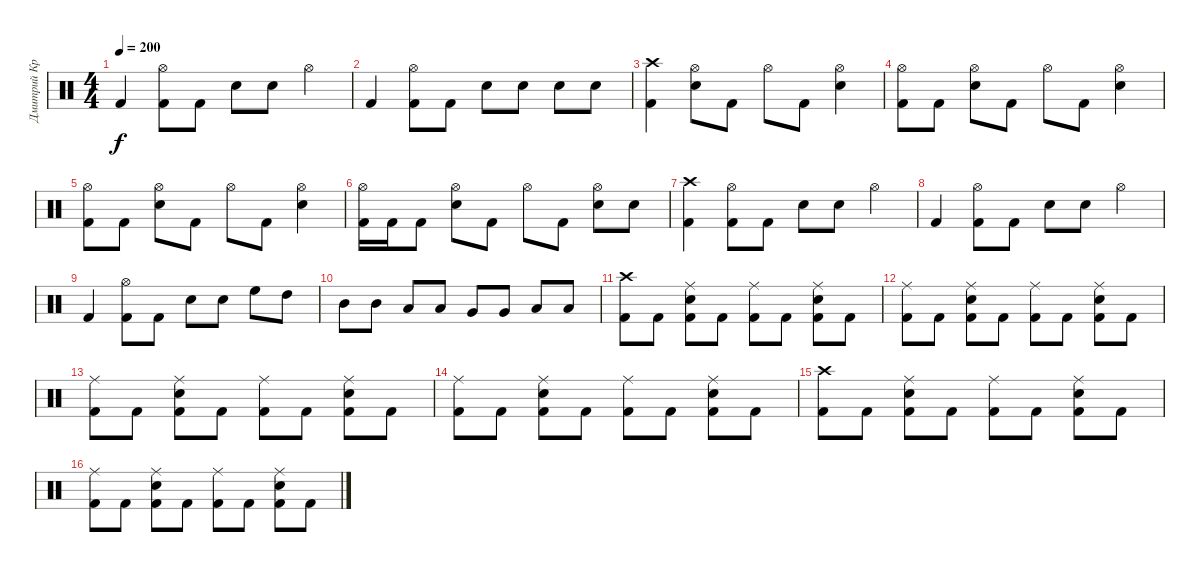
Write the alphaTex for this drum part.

\track ("Дмитрий Кривенков" "Дмитрий Кр") {instrument percussion}
\staff {score}
\articulation defaults
\ts (4 4)
\tempo 200
\clef neutral
\ks c "Kick (hit) 2".4{dy f}
("Hi-Hat (open)" "Kick (hit) 2").8 "Kick (hit) 2".8 "Electric Snare (hit)".8 "Electric Snare (hit)".8 "Hi-Hat (open)".4 |
"Kick (hit) 2".4 ("Hi-Hat (open)" "Kick (hit) 2").8 "Kick (hit) 2".8 "Electric Snare (hit)".8 "Electric Snare (hit)".8 "Electric Snare (hit)".8 "Electric Snare (hit)".8 |
("Crash high (hit)" "Kick (hit) 2").4 ("Hi-Hat (open)" "Electric Snare (hit)").8 "Kick (hit) 2".8 "Hi-Hat (open)".8 "Kick (hit) 2".8 ("Hi-Hat (open)" "Electric Snare (hit)").4 |
("Hi-Hat (open)" "Kick (hit) 2").8 "Kick (hit) 2".8 ("Hi-Hat (open)" "Electric Snare (hit)").8 "Kick (hit) 2".8 "Hi-Hat (open)".8 "Kick (hit) 2".8 ("Hi-Hat (open)" "Electric Snare (hit)").4 |
("Hi-Hat (open)" "Kick (hit) 2").8 "Kick (hit) 2".8 ("Hi-Hat (open)" "Electric Snare (hit)").8 "Kick (hit) 2".8 "Hi-Hat (open)".8 "Kick (hit) 2".8 ("Hi-Hat (open)" "Electric Snare (hit)").4 |
("Hi-Hat (open)" "Kick (hit) 2").16 "Kick (hit) 2".16 "Kick (hit) 2".8 ("Hi-Hat (open)" "Electric Snare (hit)").8 "Kick (hit) 2".8 "Hi-Hat (open)".8 "Kick (hit) 2".8 ("Hi-Hat (open)" "Electric Snare (hit)").8 "Electric Snare (hit)".8 |
("Crash high (hit)" "Kick (hit) 2").4 ("Hi-Hat (open)" "Kick (hit) 2").8 "Kick (hit) 2".8 "Electric Snare (hit)".8 "Electric Snare (hit)".8 "Hi-Hat (open)".4 |
"Kick (hit) 2".4 ("Hi-Hat (open)" "Kick (hit) 2").8 "Kick (hit) 2".8 "Electric Snare (hit)".8 "Electric Snare (hit)".8 "Hi-Hat (open)".4 |
"Kick (hit) 2".4 ("Hi-Hat (open)" "Kick (hit) 2").8 "Kick (hit) 2".8 "Electric Snare (hit)".8 "Electric Snare (hit)".8 "High Floor Tom (hit)".8 "High Tom (hit)".8 |
"Mid Tom (hit)".8 "Mid Tom (hit)".8 "Low Tom (hit)".8 "Low Tom (hit)".8 "Very Low Tom (hit)".8 "Very Low Tom (hit)".8 "Low Floor Tom (hit)".8 "Low Floor Tom (hit)".8 |
("Crash high (hit)" "Kick (hit) 2").8 "Kick (hit) 2".8 ("Ride (middle)" "Electric Snare (hit)" "Kick (hit) 2").8 "Kick (hit) 2".8 ("Ride (middle)" "Kick (hit) 2").8 "Kick (hit) 2".8 ("Ride (middle)" "Electric Snare (hit)" "Kick (hit) 2").8 "Kick (hit) 2".8 |
("Ride (middle)" "Kick (hit) 2").8 "Kick (hit) 2".8 ("Ride (middle)" "Electric Snare (hit)" "Kick (hit) 2").8 "Kick (hit) 2".8 ("Ride (middle)" "Kick (hit) 2").8 "Kick (hit) 2".8 ("Ride (middle)" "Electric Snare (hit)" "Kick (hit) 2").8 "Kick (hit) 2".8 |
("Ride (middle)" "Kick (hit) 2").8 "Kick (hit) 2".8 ("Ride (middle)" "Electric Snare (hit)" "Kick (hit) 2").8 "Kick (hit) 2".8 ("Ride (middle)" "Kick (hit) 2").8 "Kick (hit) 2".8 ("Ride (middle)" "Electric Snare (hit)" "Kick (hit) 2").8 "Kick (hit) 2".8 |
("Ride (middle)" "Kick (hit) 2").8 "Kick (hit) 2".8 ("Ride (middle)" "Electric Snare (hit)" "Kick (hit) 2").8 "Kick (hit) 2".8 ("Ride (middle)" "Kick (hit) 2").8 "Kick (hit) 2".8 ("Ride (middle)" "Electric Snare (hit)" "Kick (hit) 2").8 "Kick (hit) 2".8 |
("Crash high (hit)" "Kick (hit) 2").8 "Kick (hit) 2".8 ("Ride (middle)" "Electric Snare (hit)" "Kick (hit) 2").8 "Kick (hit) 2".8 ("Ride (middle)" "Kick (hit) 2").8 "Kick (hit) 2".8 ("Ride (middle)" "Electric Snare (hit)" "Kick (hit) 2").8 "Kick (hit) 2".8 |
("Ride (middle)" "Kick (hit) 2").8 "Kick (hit) 2".8 ("Ride (middle)" "Electric Snare (hit)" "Kick (hit) 2").8 "Kick (hit) 2".8 ("Ride (middle)" "Kick (hit) 2").8 "Kick (hit) 2".8 ("Ride (middle)" "Electric Snare (hit)" "Kick (hit) 2").8 "Kick (hit) 2".8
